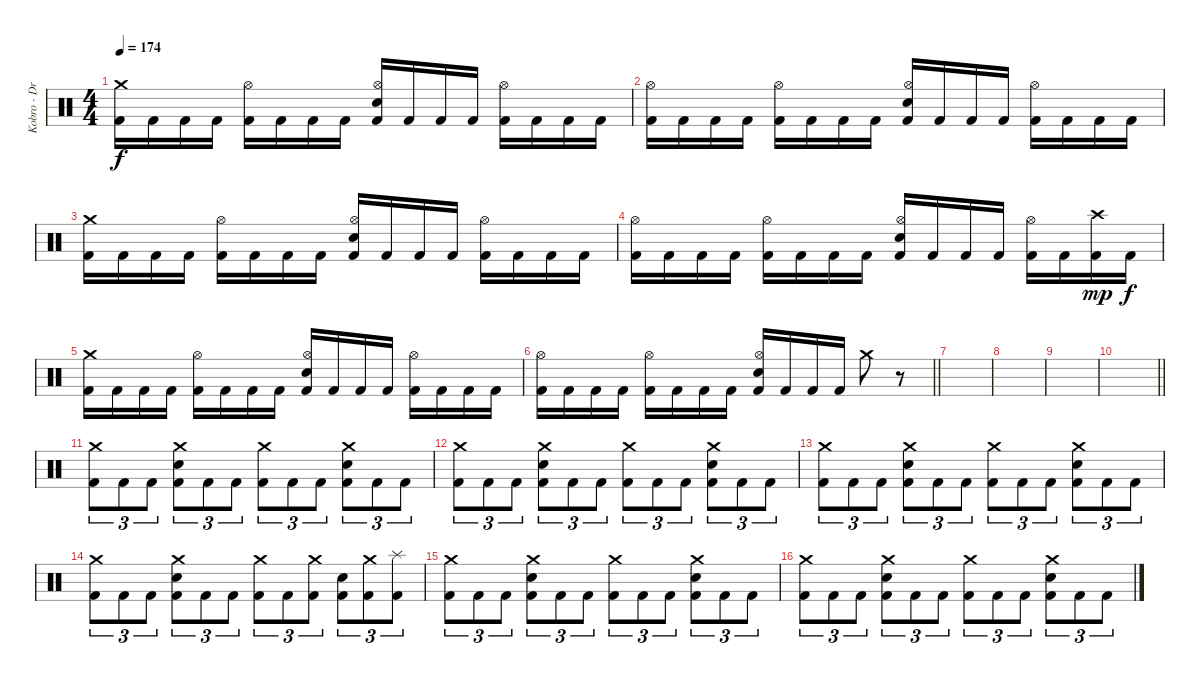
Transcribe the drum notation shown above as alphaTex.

\track ("Kobro - Drums + Percussion" "Kobro - Dr") {instrument percussion}
\staff {score}
\articulation defaults
\ts (4 4)
\tempo 174
\clef neutral
\ks c
("Crash medium (hit)" "Kick (hit) 2").16{dy f} "Kick (hit) 2".16 "Kick (hit) 2".16 "Kick (hit) 2".16 ("Hi-Hat (open)" "Kick (hit) 2").16 "Kick (hit) 2".16 "Kick (hit) 2".16 "Kick (hit) 2".16 ("Hi-Hat (open)" "Electric Snare (hit)" "Kick (hit) 2").16 "Kick (hit) 2".16 "Kick (hit) 2".16 "Kick (hit) 2".16 ("Hi-Hat (open)" "Kick (hit) 2").16 "Kick (hit) 2".16 "Kick (hit) 2".16 "Kick (hit) 2".16 |
("Hi-Hat (open)" "Kick (hit) 2").16 "Kick (hit) 2".16 "Kick (hit) 2".16 "Kick (hit) 2".16 ("Hi-Hat (open)" "Kick (hit) 2").16 "Kick (hit) 2".16 "Kick (hit) 2".16 "Kick (hit) 2".16 ("Hi-Hat (open)" "Electric Snare (hit)" "Kick (hit) 2").16 "Kick (hit) 2".16 "Kick (hit) 2".16 "Kick (hit) 2".16 ("Hi-Hat (open)" "Kick (hit) 2").16 "Kick (hit) 2".16 "Kick (hit) 2".16 "Kick (hit) 2".16 |
("Crash medium (hit)" "Kick (hit) 2").16 "Kick (hit) 2".16 "Kick (hit) 2".16 "Kick (hit) 2".16 ("Hi-Hat (open)" "Kick (hit) 2").16 "Kick (hit) 2".16 "Kick (hit) 2".16 "Kick (hit) 2".16 ("Hi-Hat (open)" "Electric Snare (hit)" "Kick (hit) 2").16 "Kick (hit) 2".16 "Kick (hit) 2".16 "Kick (hit) 2".16 ("Hi-Hat (open)" "Kick (hit) 2").16 "Kick (hit) 2".16 "Kick (hit) 2".16 "Kick (hit) 2".16 |
("Hi-Hat (open)" "Kick (hit) 2").16 "Kick (hit) 2".16 "Kick (hit) 2".16 "Kick (hit) 2".16 ("Hi-Hat (open)" "Kick (hit) 2").16 "Kick (hit) 2".16 "Kick (hit) 2".16 "Kick (hit) 2".16 ("Hi-Hat (open)" "Electric Snare (hit)" "Kick (hit) 2").16 "Kick (hit) 2".16 "Kick (hit) 2".16 "Kick (hit) 2".16 ("Hi-Hat (open)" "Kick (hit) 2").16 "Kick (hit) 2".16 ("Crash high (hit)" "Kick (hit) 2").16{dy mp} "Kick (hit) 2".16{dy f} |
("Crash medium (hit)" "Kick (hit) 2").16 "Kick (hit) 2".16 "Kick (hit) 2".16 "Kick (hit) 2".16 ("Hi-Hat (open)" "Kick (hit) 2").16 "Kick (hit) 2".16 "Kick (hit) 2".16 "Kick (hit) 2".16 ("Hi-Hat (open)" "Electric Snare (hit)" "Kick (hit) 2").16 "Kick (hit) 2".16 "Kick (hit) 2".16 "Kick (hit) 2".16 ("Hi-Hat (open)" "Kick (hit) 2").16 "Kick (hit) 2".16 "Kick (hit) 2".16 "Kick (hit) 2".16 |
\barLineRight lightlight
("Hi-Hat (open)" "Kick (hit) 2").16 "Kick (hit) 2".16 "Kick (hit) 2".16 "Kick (hit) 2".16 ("Hi-Hat (open)" "Kick (hit) 2").16 "Kick (hit) 2".16 "Kick (hit) 2".16 "Kick (hit) 2".16 ("Hi-Hat (open)" "Electric Snare (hit)" "Kick (hit) 2").16 "Kick (hit) 2".16 "Kick (hit) 2".16 "Kick (hit) 2".16 "Crash medium (hit)".8 r.8{volume 0} |
|
|
|
\barLineRight lightlight
|
("Crash medium (hit)" "Kick (hit) 2").8{tu (3 2) volume 13} "Kick (hit) 2".8{tu (3 2)} "Kick (hit) 2".8{tu (3 2)} ("Crash medium (hit)" "Electric Snare (hit)" "Kick (hit) 2").8{tu (3 2)} "Kick (hit) 2".8{tu (3 2)} "Kick (hit) 2".8{tu (3 2)} ("Crash medium (hit)" "Kick (hit) 2").8{tu (3 2)} "Kick (hit) 2".8{tu (3 2)} "Kick (hit) 2".8{tu (3 2)} ("Crash medium (hit)" "Electric Snare (hit)" "Kick (hit) 2").8{tu (3 2)} "Kick (hit) 2".8{tu (3 2)} "Kick (hit) 2".8{tu (3 2)} |
("Crash medium (hit)" "Kick (hit) 2").8{tu (3 2)} "Kick (hit) 2".8{tu (3 2)} "Kick (hit) 2".8{tu (3 2)} ("Crash medium (hit)" "Electric Snare (hit)" "Kick (hit) 2").8{tu (3 2)} "Kick (hit) 2".8{tu (3 2)} "Kick (hit) 2".8{tu (3 2)} ("Crash medium (hit)" "Kick (hit) 2").8{tu (3 2)} "Kick (hit) 2".8{tu (3 2)} "Kick (hit) 2".8{tu (3 2)} ("Crash medium (hit)" "Electric Snare (hit)" "Kick (hit) 2").8{tu (3 2)} "Kick (hit) 2".8{tu (3 2)} "Kick (hit) 2".8{tu (3 2)} |
("Crash medium (hit)" "Kick (hit) 2").8{tu (3 2)} "Kick (hit) 2".8{tu (3 2)} "Kick (hit) 2".8{tu (3 2)} ("Crash medium (hit)" "Electric Snare (hit)" "Kick (hit) 2").8{tu (3 2)} "Kick (hit) 2".8{tu (3 2)} "Kick (hit) 2".8{tu (3 2)} ("Crash medium (hit)" "Kick (hit) 2").8{tu (3 2)} "Kick (hit) 2".8{tu (3 2)} "Kick (hit) 2".8{tu (3 2)} ("Crash medium (hit)" "Electric Snare (hit)" "Kick (hit) 2").8{tu (3 2)} "Kick (hit) 2".8{tu (3 2)} "Kick (hit) 2".8{tu (3 2)} |
("Crash medium (hit)" "Kick (hit) 2").8{tu (3 2)} "Kick (hit) 2".8{tu (3 2)} "Kick (hit) 2".8{tu (3 2)} ("Crash medium (hit)" "Electric Snare (hit)" "Kick (hit) 2").8{tu (3 2)} "Kick (hit) 2".8{tu (3 2)} "Kick (hit) 2".8{tu (3 2)} ("Crash medium (hit)" "Kick (hit) 2").8{tu (3 2)} "Kick (hit) 2".8{tu (3 2)} ("Crash medium (hit)" "Kick (hit) 2").8{tu (3 2)} ("Electric Snare (hit)" "Kick (hit) 2").8{tu (3 2)} ("Crash medium (hit)" "Kick (hit) 2").8{tu (3 2)} ("Splash (hit)" "Kick (hit) 2").8{tu (3 2)} |
("Crash medium (hit)" "Kick (hit) 2").8{tu (3 2)} "Kick (hit) 2".8{tu (3 2)} "Kick (hit) 2".8{tu (3 2)} ("Crash medium (hit)" "Electric Snare (hit)" "Kick (hit) 2").8{tu (3 2)} "Kick (hit) 2".8{tu (3 2)} "Kick (hit) 2".8{tu (3 2)} ("Crash medium (hit)" "Kick (hit) 2").8{tu (3 2)} "Kick (hit) 2".8{tu (3 2)} "Kick (hit) 2".8{tu (3 2)} ("Crash medium (hit)" "Electric Snare (hit)" "Kick (hit) 2").8{tu (3 2)} "Kick (hit) 2".8{tu (3 2)} "Kick (hit) 2".8{tu (3 2)} |
("Crash medium (hit)" "Kick (hit) 2").8{tu (3 2)} "Kick (hit) 2".8{tu (3 2)} "Kick (hit) 2".8{tu (3 2)} ("Crash medium (hit)" "Electric Snare (hit)" "Kick (hit) 2").8{tu (3 2)} "Kick (hit) 2".8{tu (3 2)} "Kick (hit) 2".8{tu (3 2)} ("Crash medium (hit)" "Kick (hit) 2").8{tu (3 2)} "Kick (hit) 2".8{tu (3 2)} "Kick (hit) 2".8{tu (3 2)} ("Crash medium (hit)" "Electric Snare (hit)" "Kick (hit) 2").8{tu (3 2)} "Kick (hit) 2".8{tu (3 2)} "Kick (hit) 2".8{tu (3 2)}
